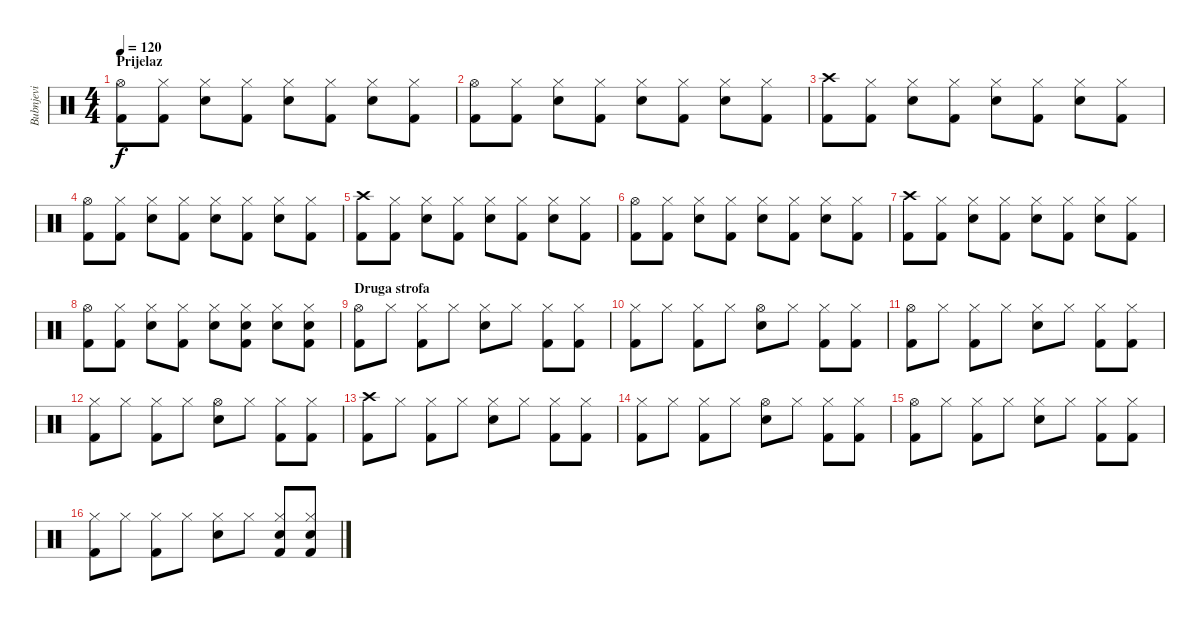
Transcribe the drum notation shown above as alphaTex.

\track ("Bubnjevi" "Bubnjevi") {instrument percussion}
\staff {score}
\articulation defaults
\ts (4 4)
\section ("" "Prijelaz")
\tempo 120
\clef neutral
\ks c
("Hi-Hat (open)" "Kick (hit) 2").8{dy f} ("Hi-Hat (closed)" "Kick (hit) 2").8 ("Hi-Hat (closed)" "Snare (hit) 2").8 ("Hi-Hat (closed)" "Kick (hit) 2").8 ("Hi-Hat (closed)" "Snare (hit) 2").8 ("Hi-Hat (closed)" "Kick (hit) 2").8 ("Hi-Hat (closed)" "Snare (hit) 2").8 ("Hi-Hat (closed)" "Kick (hit) 2").8 |
("Hi-Hat (open)" "Kick (hit) 2").8 ("Hi-Hat (closed)" "Kick (hit) 2").8 ("Hi-Hat (closed)" "Snare (hit) 2").8 ("Hi-Hat (closed)" "Kick (hit) 2").8 ("Hi-Hat (closed)" "Snare (hit) 2").8 ("Hi-Hat (closed)" "Kick (hit) 2").8 ("Hi-Hat (closed)" "Snare (hit) 2").8 ("Hi-Hat (closed)" "Kick (hit) 2").8 |
("Crash high (hit)" "Kick (hit) 2").8 ("Hi-Hat (closed)" "Kick (hit) 2").8 ("Hi-Hat (closed)" "Snare (hit) 2").8 ("Hi-Hat (closed)" "Kick (hit) 2").8 ("Hi-Hat (closed)" "Snare (hit) 2").8 ("Hi-Hat (closed)" "Kick (hit) 2").8 ("Hi-Hat (closed)" "Snare (hit) 2").8 ("Hi-Hat (closed)" "Kick (hit) 2").8 |
("Hi-Hat (open)" "Kick (hit) 2").8 ("Hi-Hat (closed)" "Kick (hit) 2").8 ("Hi-Hat (closed)" "Snare (hit) 2").8 ("Hi-Hat (closed)" "Kick (hit) 2").8 ("Hi-Hat (closed)" "Snare (hit) 2").8 ("Hi-Hat (closed)" "Kick (hit) 2").8 ("Hi-Hat (closed)" "Snare (hit) 2").8 ("Hi-Hat (closed)" "Kick (hit) 2").8 |
("Crash high (hit)" "Kick (hit) 2").8 ("Hi-Hat (closed)" "Kick (hit) 2").8 ("Hi-Hat (closed)" "Snare (hit) 2").8 ("Hi-Hat (closed)" "Kick (hit) 2").8 ("Hi-Hat (closed)" "Snare (hit) 2").8 ("Hi-Hat (closed)" "Kick (hit) 2").8 ("Hi-Hat (closed)" "Snare (hit) 2").8 ("Hi-Hat (closed)" "Kick (hit) 2").8 |
("Hi-Hat (open)" "Kick (hit) 2").8 ("Hi-Hat (closed)" "Kick (hit) 2").8 ("Hi-Hat (closed)" "Snare (hit) 2").8 ("Hi-Hat (closed)" "Kick (hit) 2").8 ("Hi-Hat (closed)" "Snare (hit) 2").8 ("Hi-Hat (closed)" "Kick (hit) 2").8 ("Hi-Hat (closed)" "Snare (hit) 2").8 ("Hi-Hat (closed)" "Kick (hit) 2").8 |
("Crash high (hit)" "Kick (hit) 2").8 ("Hi-Hat (closed)" "Kick (hit) 2").8 ("Hi-Hat (closed)" "Snare (hit) 2").8 ("Hi-Hat (closed)" "Kick (hit) 2").8 ("Hi-Hat (closed)" "Snare (hit) 2").8 ("Hi-Hat (closed)" "Kick (hit) 2").8 ("Hi-Hat (closed)" "Snare (hit) 2").8 ("Hi-Hat (closed)" "Kick (hit) 2").8 |
("Hi-Hat (open)" "Kick (hit) 2").8 ("Hi-Hat (closed)" "Kick (hit) 2").8 ("Hi-Hat (closed)" "Snare (hit) 2").8 ("Hi-Hat (closed)" "Kick (hit) 2").8 ("Hi-Hat (closed)" "Snare (hit) 2").8 ("Hi-Hat (closed)" "Snare (hit) 2" "Kick (hit) 2").8 ("Hi-Hat (closed)" "Snare (hit) 2").8 ("Hi-Hat (closed)" "Snare (hit) 2" "Kick (hit) 2").8 |
\section ("" "Druga strofa")
("Hi-Hat (open)" "Kick (hit) 2").8 "Hi-Hat (closed)".8 ("Hi-Hat (closed)" "Kick (hit) 2").8 "Hi-Hat (closed)".8 ("Hi-Hat (closed)" "Snare (hit) 2").8 "Hi-Hat (closed)".8 ("Hi-Hat (closed)" "Kick (hit) 2").8 ("Hi-Hat (closed)" "Kick (hit) 2").8 |
("Hi-Hat (closed)" "Kick (hit) 2").8 "Hi-Hat (closed)".8 ("Hi-Hat (closed)" "Kick (hit) 2").8 "Hi-Hat (closed)".8 ("Hi-Hat (open)" "Snare (hit) 2").8 "Hi-Hat (closed)".8 ("Hi-Hat (closed)" "Kick (hit) 2").8 ("Hi-Hat (closed)" "Kick (hit) 2").8 |
("Hi-Hat (open)" "Kick (hit) 2").8 "Hi-Hat (closed)".8 ("Hi-Hat (closed)" "Kick (hit) 2").8 "Hi-Hat (closed)".8 ("Hi-Hat (closed)" "Snare (hit) 2").8 "Hi-Hat (closed)".8 ("Hi-Hat (closed)" "Kick (hit) 2").8 ("Hi-Hat (closed)" "Kick (hit) 2").8 |
("Hi-Hat (closed)" "Kick (hit) 2").8 "Hi-Hat (closed)".8 ("Hi-Hat (closed)" "Kick (hit) 2").8 "Hi-Hat (closed)".8 ("Hi-Hat (open)" "Snare (hit) 2").8 "Hi-Hat (closed)".8 ("Hi-Hat (closed)" "Kick (hit) 2").8 ("Hi-Hat (closed)" "Kick (hit) 2").8 |
("Crash high (hit)" "Kick (hit) 2").8 "Hi-Hat (closed)".8 ("Hi-Hat (closed)" "Kick (hit) 2").8 "Hi-Hat (closed)".8 ("Hi-Hat (closed)" "Snare (hit) 2").8 "Hi-Hat (closed)".8 ("Hi-Hat (closed)" "Kick (hit) 2").8 ("Hi-Hat (closed)" "Kick (hit) 2").8 |
("Hi-Hat (closed)" "Kick (hit) 2").8 "Hi-Hat (closed)".8 ("Hi-Hat (closed)" "Kick (hit) 2").8 "Hi-Hat (closed)".8 ("Hi-Hat (open)" "Snare (hit) 2").8 "Hi-Hat (closed)".8 ("Hi-Hat (closed)" "Kick (hit) 2").8 ("Hi-Hat (closed)" "Kick (hit) 2").8 |
("Hi-Hat (open)" "Kick (hit) 2").8 "Hi-Hat (closed)".8 ("Hi-Hat (closed)" "Kick (hit) 2").8 "Hi-Hat (closed)".8 ("Hi-Hat (closed)" "Snare (hit) 2").8 "Hi-Hat (closed)".8 ("Hi-Hat (closed)" "Kick (hit) 2").8 ("Hi-Hat (closed)" "Kick (hit) 2").8 |
("Hi-Hat (closed)" "Kick (hit) 2").8 "Hi-Hat (closed)".8 ("Hi-Hat (closed)" "Kick (hit) 2").8 "Hi-Hat (closed)".8 ("Hi-Hat (closed)" "Snare (hit) 2").8 "Hi-Hat (closed)".8 ("Hi-Hat (closed)" "Snare (hit) 2" "Kick (hit) 2").8 ("Hi-Hat (closed)" "Snare (hit) 2" "Kick (hit) 2").8
